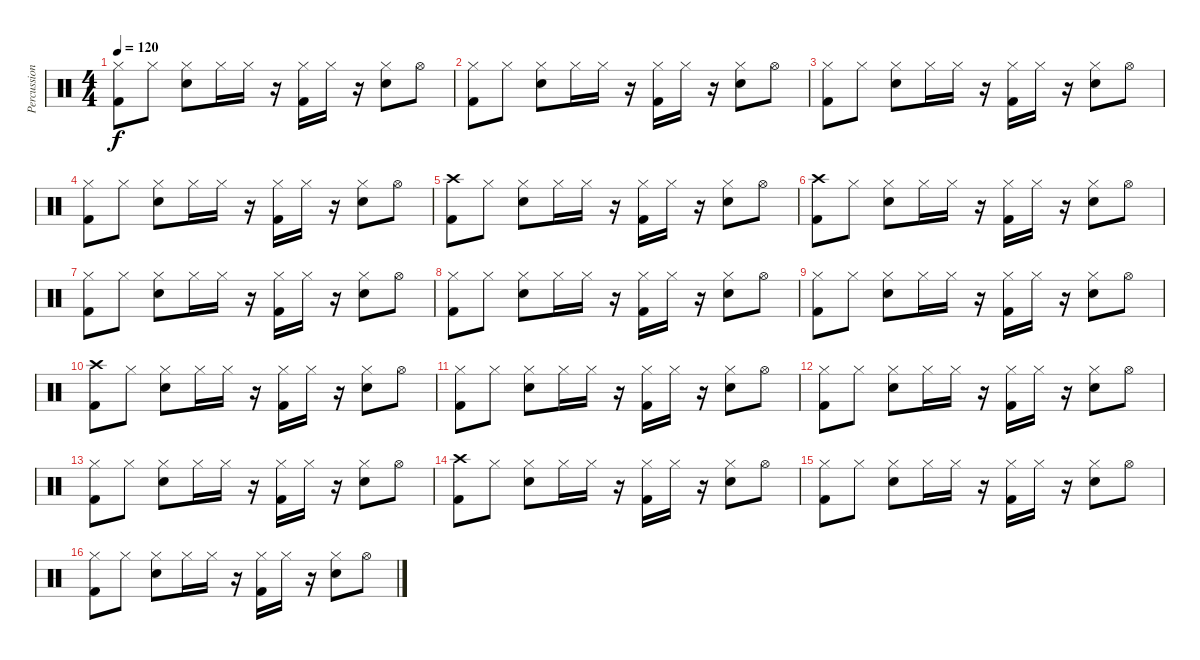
\track ("Percussions" "Percussion") {instrument percussion}
\staff {score}
\articulation defaults
\ts (4 4)
\tempo 120
\clef neutral
\ks c
("Hi-Hat (closed)" "Kick (hit) 2").8{dy f} "Hi-Hat (closed)".8 ("Hi-Hat (closed)" "Snare (hit) 2").8 "Hi-Hat (closed)".16 "Hi-Hat (closed)".16 r.16 ("Hi-Hat (closed)" "Kick (hit) 2").16 "Hi-Hat (closed)".16 r.16 ("Hi-Hat (closed)" "Snare (hit) 2").8 "Hi-Hat (open)".8 |
("Hi-Hat (closed)" "Kick (hit) 2").8 "Hi-Hat (closed)".8 ("Hi-Hat (closed)" "Snare (hit) 2").8 "Hi-Hat (closed)".16 "Hi-Hat (closed)".16 r.16 ("Hi-Hat (closed)" "Kick (hit) 2").16 "Hi-Hat (closed)".16 r.16 ("Hi-Hat (closed)" "Snare (hit) 2").8 "Hi-Hat (open)".8 |
("Hi-Hat (closed)" "Kick (hit) 2").8 "Hi-Hat (closed)".8 ("Hi-Hat (closed)" "Snare (hit) 2").8 "Hi-Hat (closed)".16 "Hi-Hat (closed)".16 r.16 ("Hi-Hat (closed)" "Kick (hit) 2").16 "Hi-Hat (closed)".16 r.16 ("Hi-Hat (closed)" "Snare (hit) 2").8 "Hi-Hat (open)".8 |
("Hi-Hat (closed)" "Kick (hit) 2").8 "Hi-Hat (closed)".8 ("Hi-Hat (closed)" "Snare (hit) 2").8 "Hi-Hat (closed)".16 "Hi-Hat (closed)".16 r.16 ("Hi-Hat (closed)" "Kick (hit) 2").16 "Hi-Hat (closed)".16 r.16 ("Hi-Hat (closed)" "Snare (hit) 2").8 "Hi-Hat (open)".8 |
("Crash high (hit)" "Kick (hit) 2").8 "Hi-Hat (closed)".8 ("Hi-Hat (closed)" "Snare (hit) 2").8 "Hi-Hat (closed)".16 "Hi-Hat (closed)".16 r.16 ("Hi-Hat (closed)" "Kick (hit) 2").16 "Hi-Hat (closed)".16 r.16 ("Hi-Hat (closed)" "Snare (hit) 2").8 "Hi-Hat (open)".8 |
("Crash high (hit)" "Kick (hit) 2").8 "Hi-Hat (closed)".8 ("Hi-Hat (closed)" "Snare (hit) 2").8 "Hi-Hat (closed)".16 "Hi-Hat (closed)".16 r.16 ("Hi-Hat (closed)" "Kick (hit) 2").16 "Hi-Hat (closed)".16 r.16 ("Hi-Hat (closed)" "Snare (hit) 2").8 "Hi-Hat (open)".8 |
("Hi-Hat (closed)" "Kick (hit) 2").8 "Hi-Hat (closed)".8 ("Hi-Hat (closed)" "Snare (hit) 2").8 "Hi-Hat (closed)".16 "Hi-Hat (closed)".16 r.16 ("Hi-Hat (closed)" "Kick (hit) 2").16 "Hi-Hat (closed)".16 r.16 ("Hi-Hat (closed)" "Snare (hit) 2").8 "Hi-Hat (open)".8 |
("Hi-Hat (closed)" "Kick (hit) 2").8 "Hi-Hat (closed)".8 ("Hi-Hat (closed)" "Snare (hit) 2").8 "Hi-Hat (closed)".16 "Hi-Hat (closed)".16 r.16 ("Hi-Hat (closed)" "Kick (hit) 2").16 "Hi-Hat (closed)".16 r.16 ("Hi-Hat (closed)" "Snare (hit) 2").8 "Hi-Hat (open)".8 |
("Hi-Hat (closed)" "Kick (hit) 2").8 "Hi-Hat (closed)".8 ("Hi-Hat (closed)" "Snare (hit) 2").8 "Hi-Hat (closed)".16 "Hi-Hat (closed)".16 r.16 ("Hi-Hat (closed)" "Kick (hit) 2").16 "Hi-Hat (closed)".16 r.16 ("Hi-Hat (closed)" "Snare (hit) 2").8 "Hi-Hat (open)".8 |
("Crash high (hit)" "Kick (hit) 2").8 "Hi-Hat (closed)".8 ("Hi-Hat (closed)" "Snare (hit) 2").8 "Hi-Hat (closed)".16 "Hi-Hat (closed)".16 r.16 ("Hi-Hat (closed)" "Kick (hit) 2").16 "Hi-Hat (closed)".16 r.16 ("Hi-Hat (closed)" "Snare (hit) 2").8 "Hi-Hat (open)".8 |
("Hi-Hat (closed)" "Kick (hit) 2").8 "Hi-Hat (closed)".8 ("Hi-Hat (closed)" "Snare (hit) 2").8 "Hi-Hat (closed)".16 "Hi-Hat (closed)".16 r.16 ("Hi-Hat (closed)" "Kick (hit) 2").16 "Hi-Hat (closed)".16 r.16 ("Hi-Hat (closed)" "Snare (hit) 2").8 "Hi-Hat (open)".8 |
("Hi-Hat (closed)" "Kick (hit) 2").8 "Hi-Hat (closed)".8 ("Hi-Hat (closed)" "Snare (hit) 2").8 "Hi-Hat (closed)".16 "Hi-Hat (closed)".16 r.16 ("Hi-Hat (closed)" "Kick (hit) 2").16 "Hi-Hat (closed)".16 r.16 ("Hi-Hat (closed)" "Snare (hit) 2").8 "Hi-Hat (open)".8 |
("Hi-Hat (closed)" "Kick (hit) 2").8 "Hi-Hat (closed)".8 ("Hi-Hat (closed)" "Snare (hit) 2").8 "Hi-Hat (closed)".16 "Hi-Hat (closed)".16 r.16 ("Hi-Hat (closed)" "Kick (hit) 2").16 "Hi-Hat (closed)".16 r.16 ("Hi-Hat (closed)" "Snare (hit) 2").8 "Hi-Hat (open)".8 |
("Crash high (hit)" "Kick (hit) 2").8 "Hi-Hat (closed)".8 ("Hi-Hat (closed)" "Snare (hit) 2").8 "Hi-Hat (closed)".16 "Hi-Hat (closed)".16 r.16 ("Hi-Hat (closed)" "Kick (hit) 2").16 "Hi-Hat (closed)".16 r.16 ("Hi-Hat (closed)" "Snare (hit) 2").8 "Hi-Hat (open)".8 |
("Hi-Hat (closed)" "Kick (hit) 2").8 "Hi-Hat (closed)".8 ("Hi-Hat (closed)" "Snare (hit) 2").8 "Hi-Hat (closed)".16 "Hi-Hat (closed)".16 r.16 ("Hi-Hat (closed)" "Kick (hit) 2").16 "Hi-Hat (closed)".16 r.16 ("Hi-Hat (closed)" "Snare (hit) 2").8 "Hi-Hat (open)".8 |
("Hi-Hat (closed)" "Kick (hit) 2").8 "Hi-Hat (closed)".8 ("Hi-Hat (closed)" "Snare (hit) 2").8 "Hi-Hat (closed)".16 "Hi-Hat (closed)".16 r.16 ("Hi-Hat (closed)" "Kick (hit) 2").16 "Hi-Hat (closed)".16 r.16 ("Hi-Hat (closed)" "Snare (hit) 2").8 "Hi-Hat (open)".8
